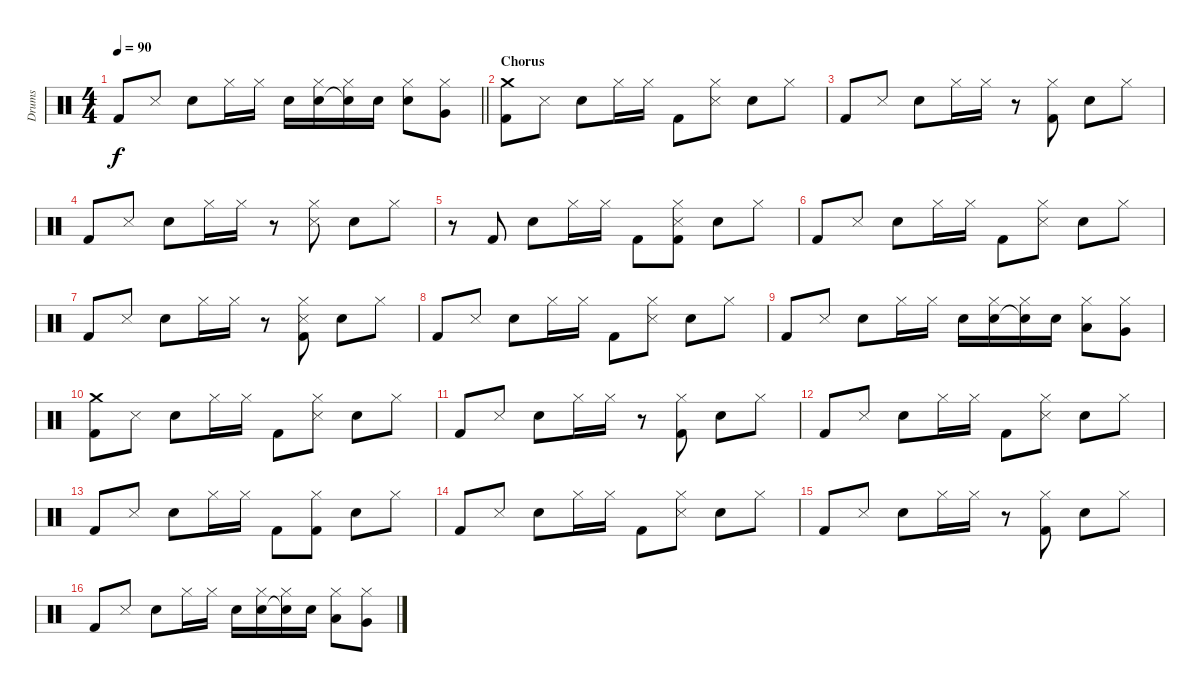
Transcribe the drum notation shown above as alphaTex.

\track ("Drums" "Drums") {instrument percussion}
\staff {score}
\articulation defaults
\ts (4 4)
\tempo 90
\clef neutral
\barLineRight lightlight
\ks c "Kick (hit) 2".8{dy f} "Snare (side stick) 3".8 "Snare (hit) 2".8 "Hi-Hat (closed)".16 "Hi-Hat (closed)".16 "Snare (hit) 2".16
("Hi-Hat (closed)" "Snare (hit) 2").16 ("Hi-Hat (closed)" "Snare (hit) 2"{t}).16 "Snare (hit) 2".16 ("Hi-Hat (closed)" "Snare (hit) 2").8 ("Hi-Hat (closed)" "Very Low Tom (hit)").8 |
\section ("" "Chorus")
("Crash medium (hit)" "Kick (hit) 2").8 "Snare (side stick) 3".8 "Snare (hit) 2".8 "Hi-Hat (closed)".16 "Hi-Hat (closed)".16 "Kick (hit) 2".8 ("Hi-Hat (closed)" "Snare (side stick) 3").8 "Snare (hit) 2".8 "Hi-Hat (closed)".8 |
"Kick (hit) 2".8 "Snare (side stick) 3".8 "Snare (hit) 2".8 "Hi-Hat (closed)".16 "Hi-Hat (closed)".16 r.8 ("Hi-Hat (closed)" "Kick (hit) 2").8 "Snare (hit) 2".8 "Hi-Hat (closed)".8 |
"Kick (hit) 2".8 "Snare (side stick) 3".8 "Snare (hit) 2".8 "Hi-Hat (closed)".16 "Hi-Hat (closed)".16 r.8 ("Hi-Hat (closed)" "Snare (side stick) 3").8 "Snare (hit) 2".8 "Hi-Hat (closed)".8 |
r.8 "Kick (hit) 2".8 "Snare (hit) 2".8 "Hi-Hat (closed)".16 "Hi-Hat (closed)".16 "Kick (hit) 2".8 ("Hi-Hat (closed)" "Snare (side stick) 3" "Kick (hit) 2").8 "Snare (hit) 2".8 "Hi-Hat (closed)".8 |
"Kick (hit) 2".8 "Snare (side stick) 3".8 "Snare (hit) 2".8 "Hi-Hat (closed)".16 "Hi-Hat (closed)".16 "Kick (hit) 2".8 ("Hi-Hat (closed)" "Snare (side stick) 3").8 "Snare (hit) 2".8 "Hi-Hat (closed)".8 |
"Kick (hit) 2".8 "Snare (side stick) 3".8 "Snare (hit) 2".8 "Hi-Hat (closed)".16 "Hi-Hat (closed)".16 r.8 ("Hi-Hat (closed)" "Snare (side stick) 3" "Kick (hit) 2").8 "Snare (hit) 2".8 "Hi-Hat (closed)".8 |
"Kick (hit) 2".8 "Snare (side stick) 3".8 "Snare (hit) 2".8 "Hi-Hat (closed)".16 "Hi-Hat (closed)".16 "Kick (hit) 2".8 ("Hi-Hat (closed)" "Snare (side stick) 3").8 "Snare (hit) 2".8 "Hi-Hat (closed)".8 |
"Kick (hit) 2".8 "Snare (side stick) 3".8 "Snare (hit) 2".8 "Hi-Hat (closed)".16 "Hi-Hat (closed)".16 "Snare (hit) 2".16 ("Hi-Hat (closed)" "Snare (hit) 2").16 ("Hi-Hat (closed)" "Snare (hit) 2"{t}).16 "Snare (hit) 2".16 ("Hi-Hat (closed)" "Low Tom (hit)").8 ("Hi-Hat (closed)" "Very Low Tom (hit)").8 |
("Crash medium (hit)" "Kick (hit) 2").8 "Snare (side stick) 3".8 "Snare (hit) 2".8 "Hi-Hat (closed)".16 "Hi-Hat (closed)".16 "Kick (hit) 2".8 ("Hi-Hat (closed)" "Snare (side stick) 3").8 "Snare (hit) 2".8 "Hi-Hat (closed)".8 |
"Kick (hit) 2".8 "Snare (side stick) 3".8 "Snare (hit) 2".8 "Hi-Hat (closed)".16 "Hi-Hat (closed)".16 r.8 ("Hi-Hat (closed)" "Kick (hit) 2").8 "Snare (hit) 2".8 "Hi-Hat (closed)".8 |
"Kick (hit) 2".8 "Snare (side stick) 3".8 "Snare (hit) 2".8 "Hi-Hat (closed)".16 "Hi-Hat (closed)".16 "Kick (hit) 2".8 ("Hi-Hat (closed)" "Snare (side stick) 3").8 "Snare (hit) 2".8 "Hi-Hat (closed)".8 |
"Kick (hit) 2".8 "Snare (side stick) 3".8 "Snare (hit) 2".8 "Hi-Hat (closed)".16 "Hi-Hat (closed)".16 "Kick (hit) 2".8 ("Hi-Hat (closed)" "Kick (hit) 2").8 "Snare (hit) 2".8 "Hi-Hat (closed)".8 |
"Kick (hit) 2".8 "Snare (side stick) 3".8 "Snare (hit) 2".8 "Hi-Hat (closed)".16 "Hi-Hat (closed)".16 "Kick (hit) 2".8 ("Hi-Hat (closed)" "Snare (side stick) 3").8 "Snare (hit) 2".8 "Hi-Hat (closed)".8 |
"Kick (hit) 2".8 "Snare (side stick) 3".8 "Snare (hit) 2".8 "Hi-Hat (closed)".16 "Hi-Hat (closed)".16 r.8 ("Hi-Hat (closed)" "Kick (hit) 2").8 "Snare (hit) 2".8 "Hi-Hat (closed)".8 |
"Kick (hit) 2".8 "Snare (side stick) 3".8 "Snare (hit) 2".8 "Hi-Hat (closed)".16 "Hi-Hat (closed)".16 "Snare (hit) 2".16 ("Hi-Hat (closed)" "Snare (hit) 2").16 ("Hi-Hat (closed)" "Snare (hit) 2"{t}).16 "Snare (hit) 2".16 ("Hi-Hat (closed)" "Low Tom (hit)").8 ("Hi-Hat (closed)" "Very Low Tom (hit)").8
